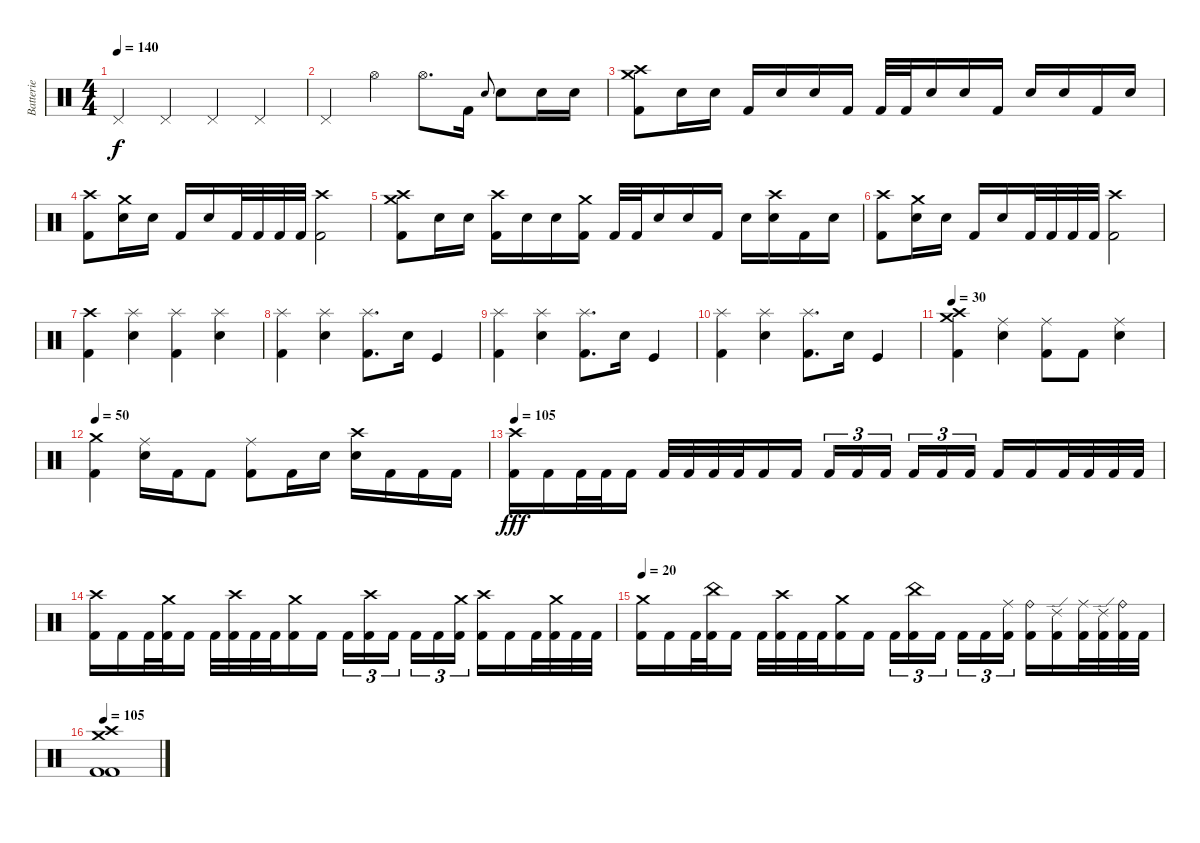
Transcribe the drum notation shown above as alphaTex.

\track ("Batterie" "Batterie") {instrument percussion}
\staff {score}
\articulation defaults
\ts (4 4)
\tempo 140
\clef neutral
\ks c "Pedal Hi-Hat (hit)".4{dy f} "Pedal Hi-Hat (hit)".4 "Pedal Hi-Hat (hit)".4 "Pedal Hi-Hat (hit)".4
|
"Pedal Hi-Hat (hit)".4 "Hi-Hat (open)".4 "Hi-Hat (open)".8{d} "Kick (hit) 2".16 "Electric Snare (hit)".8{gr onbeat} "Electric Snare (hit)".8 "Electric Snare (hit)".16 "Electric Snare (hit)".16 |
("Crash high (hit)" "Crash medium (hit)" "Kick (hit) 2").8 "Electric Snare (hit)".16 "Electric Snare (hit)".16 "Kick (hit) 2".16 "Electric Snare (hit)".16 "Electric Snare (hit)".16 "Kick (hit) 2".16 "Kick (hit) 2".32 "Kick (hit) 2".32 "Electric Snare (hit)".16 "Electric Snare (hit)".16 "Kick (hit) 2".16 "Electric Snare (hit)".16 "Electric Snare (hit)".16 "Kick (hit) 2".16 "Electric Snare (hit)".16 |
("Crash high (hit)" "Kick (hit) 2").8 ("Crash medium (hit)" "Electric Snare (hit)").16 "Electric Snare (hit)".16 "Kick (hit) 2".16 "Electric Snare (hit)".16 "Kick (hit) 2".32 "Kick (hit) 2".32 "Kick (hit) 2".32 "Kick (hit) 2".32 ("Crash high (hit)" "Kick (hit) 2").2 |
("Crash high (hit)" "Crash medium (hit)" "Kick (hit) 2").8 "Electric Snare (hit)".16 "Electric Snare (hit)".16 ("Crash high (hit)" "Kick (hit) 2").16 "Electric Snare (hit)".16 "Electric Snare (hit)".16 ("Crash medium (hit)" "Kick (hit) 2").16 "Kick (hit) 2".32 "Kick (hit) 2".32 "Electric Snare (hit)".16 "Electric Snare (hit)".16 "Kick (hit) 2".16 "Electric Snare (hit)".16 ("Crash high (hit)" "Electric Snare (hit)").16 "Kick (hit) 2".16 "Electric Snare (hit)".16 |
("Crash high (hit)" "Kick (hit) 2").8 ("Crash medium (hit)" "Electric Snare (hit)").16 "Electric Snare (hit)".16 "Kick (hit) 2".16 "Electric Snare (hit)".16 "Kick (hit) 2".32 "Kick (hit) 2".32 "Kick (hit) 2".32 "Kick (hit) 2".32 ("Crash high (hit)" "Kick (hit) 2").2 |
("Crash high (hit)" "Kick (hit) 2").4 ("Splash (hit)" "Electric Snare (hit)").4 ("Splash (hit)" "Kick (hit) 2").4 ("Splash (hit)" "Electric Snare (hit)").4 |
("Splash (hit)" "Kick (hit) 2").4 ("Splash (hit)" "Electric Snare (hit)").4 ("Splash (hit)" "Kick (hit) 2").8{d} "Electric Snare (hit)".16 "Kick (hit)".4 |
("Splash (hit)" "Kick (hit) 2").4 ("Splash (hit)" "Electric Snare (hit)").4 ("Splash (hit)" "Kick (hit) 2").8{d} "Electric Snare (hit)".16 "Kick (hit)".4 |
("Splash (hit)" "Kick (hit) 2").4 ("Splash (hit)" "Electric Snare (hit)").4 ("Splash (hit)" "Kick (hit) 2").8{d} "Electric Snare (hit)".16 "Kick (hit)".4 |
\tempo 30
("Crash high (hit)" "Crash medium (hit)" "Kick (hit) 2").4 ("Ride (middle)" "Electric Snare (hit)").4 ("Ride (middle)" "Kick (hit) 2").8 "Kick (hit) 2".8 ("Ride (middle)" "Electric Snare (hit)").4 |
\tempo 50
("Crash medium (hit)" "Kick (hit) 2").4 ("Ride (middle)" "Electric Snare (hit)").16 "Kick (hit) 2".16 "Kick (hit) 2".8 ("Ride (middle)" "Kick (hit) 2").8 "Kick (hit) 2".16 "Electric Snare (hit)".16 ("Crash high (hit)" "Electric Snare (hit)").16 "Kick (hit) 2".16 "Kick (hit) 2".16 "Kick (hit) 2".16 |
\tempo 105
("Crash high (hit)" "Kick (hit) 2").16{dy fff} "Kick (hit) 2".16 "Kick (hit) 2".32 "Kick (hit) 2".32 "Kick (hit) 2".16 "Kick (hit) 2".32 "Kick (hit) 2".32 "Kick (hit) 2".32 "Kick (hit) 2".32 "Kick (hit) 2".16 "Kick (hit) 2".16 "Kick (hit) 2".16{tu (3 2)} "Kick (hit) 2".16{tu (3 2)} "Kick (hit) 2".16{tu (3 2) beam splitsecondary} "Kick (hit) 2".16{tu (3 2)} "Kick (hit) 2".16{tu (3 2)} "Kick (hit) 2".16{tu (3 2)} "Kick (hit) 2".16 "Kick (hit) 2".16 "Kick (hit) 2".32 "Kick (hit) 2".32 "Kick (hit) 2".32 "Kick (hit) 2".32 |
("Crash high (hit)" "Kick (hit) 2").16 "Kick (hit) 2".16 "Kick (hit) 2".32 ("Crash medium (hit)" "Kick (hit) 2").32 "Kick (hit) 2".16 "Kick (hit) 2".32 ("Crash high (hit)" "Kick (hit) 2").32 "Kick (hit) 2".32 "Kick (hit) 2".32 ("Crash medium (hit)" "Kick (hit) 2").16 "Kick (hit) 2".16 "Kick (hit) 2".16{tu (3 2)} ("Crash high (hit)" "Kick (hit) 2").16{tu (3 2)} "Kick (hit) 2".16{tu (3 2) beam splitsecondary} "Kick (hit) 2".16{tu (3 2)} "Kick (hit) 2".16{tu (3 2)} ("Crash medium (hit)" "Kick (hit) 2").16{tu (3 2)} ("Crash high (hit)" "Kick (hit) 2").16 "Kick (hit) 2".16 "Kick (hit) 2".32 ("Crash medium (hit)" "Kick (hit) 2").32 "Kick (hit) 2".32 "Kick (hit) 2".32 |
\tempo 20
("Crash medium (hit)" "Kick (hit) 2").16 "Kick (hit) 2".16 "Kick (hit) 2".32 ("China (hit)" "Kick (hit) 2").32 "Kick (hit) 2".16 "Kick (hit) 2".32 ("Crash high (hit)" "Kick (hit) 2").32 "Kick (hit) 2".32 "Kick (hit) 2".32 ("Crash medium (hit)" "Kick (hit) 2").16 "Kick (hit) 2".16 "Kick (hit) 2".16{tu (3 2)} ("China (hit)" "Kick (hit) 2").16{tu (3 2)} "Kick (hit) 2".16{tu (3 2) beam splitsecondary} "Kick (hit) 2".16{tu (3 2)} "Kick (hit) 2".16{tu (3 2)} ("Ride (middle)" "Kick (hit) 2").16{tu (3 2)} ("Ride (bell)" "Kick (hit) 2").16 ("Ride (edge) 2" "Kick (hit) 2").16 ("Ride (middle)" "Kick (hit) 2").32 ("Ride (edge) 2" "Kick (hit) 2").32 ("Ride (bell)" "Kick (hit) 2").32 "Kick (hit) 2".32 |
\tempo 105
("Crash high (hit)" "Crash medium (hit)" "Kick (hit) 2" "Kick (hit) 2").1
